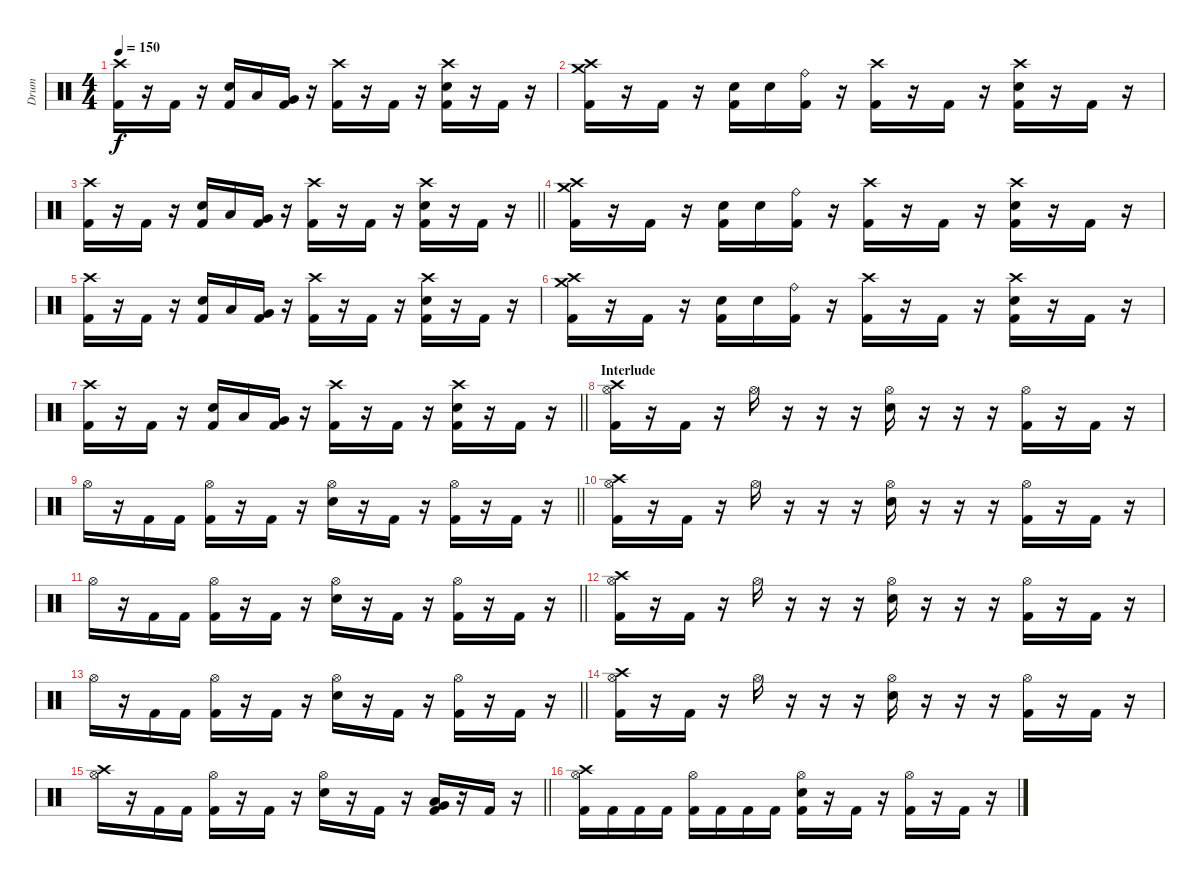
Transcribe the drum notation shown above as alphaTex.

\track ("Drum" "Drum") {instrument percussion}
\staff {score}
\articulation defaults
\ts (4 4)
\tempo 150
\clef neutral
\ks c
("Crash high (hit)" "Kick (hit) 2").16{dy f} r.16 "Kick (hit) 2".16 r.16 ("Electric Snare (hit)" "Kick (hit) 2").16 "Low Floor Tom (hit)".16 ("Very Low Tom (hit)" "Kick (hit) 2").16 r.16 ("Crash high (hit)" "Kick (hit) 2").16 r.16 "Kick (hit) 2".16 r.16 ("Crash high (hit)" "Electric Snare (hit)" "Kick (hit) 2").16 r.16 "Kick (hit) 2".16 r.16 |
("Crash high (hit)" "Crash medium (hit)" "Kick (hit) 2").16 r.16 "Kick (hit) 2".16 r.16 ("Electric Snare (hit)" "Kick (hit) 2").16 "Electric Snare (hit)".16 ("Ride (bell)" "Kick (hit) 2").16 r.16 ("Crash high (hit)" "Kick (hit) 2").16 r.16 "Kick (hit) 2".16 r.16 ("Crash high (hit)" "Electric Snare (hit)" "Kick (hit) 2").16 r.16 "Kick (hit) 2".16 r.16 |
\barLineRight lightlight
("Crash high (hit)" "Kick (hit) 2").16 r.16 "Kick (hit) 2".16 r.16 ("Electric Snare (hit)" "Kick (hit) 2").16 "Low Floor Tom (hit)".16 ("Very Low Tom (hit)" "Kick (hit) 2").16 r.16 ("Crash high (hit)" "Kick (hit) 2").16 r.16 "Kick (hit) 2".16 r.16 ("Crash high (hit)" "Electric Snare (hit)" "Kick (hit) 2").16 r.16 "Kick (hit) 2".16 r.16 |
("Crash high (hit)" "Crash medium (hit)" "Kick (hit) 2").16 r.16 "Kick (hit) 2".16 r.16 ("Electric Snare (hit)" "Kick (hit) 2").16 "Electric Snare (hit)".16 ("Ride (bell)" "Kick (hit) 2").16 r.16 ("Crash high (hit)" "Kick (hit) 2").16 r.16 "Kick (hit) 2".16 r.16 ("Crash high (hit)" "Electric Snare (hit)" "Kick (hit) 2").16 r.16 "Kick (hit) 2".16 r.16 |
("Crash high (hit)" "Kick (hit) 2").16 r.16 "Kick (hit) 2".16 r.16 ("Electric Snare (hit)" "Kick (hit) 2").16 "Low Floor Tom (hit)".16 ("Very Low Tom (hit)" "Kick (hit) 2").16 r.16 ("Crash high (hit)" "Kick (hit) 2").16 r.16 "Kick (hit) 2".16 r.16 ("Crash high (hit)" "Electric Snare (hit)" "Kick (hit) 2").16 r.16 "Kick (hit) 2".16 r.16 |
("Crash high (hit)" "Crash medium (hit)" "Kick (hit) 2").16 r.16 "Kick (hit) 2".16 r.16 ("Electric Snare (hit)" "Kick (hit) 2").16 "Electric Snare (hit)".16 ("Ride (bell)" "Kick (hit) 2").16 r.16 ("Crash high (hit)" "Kick (hit) 2").16 r.16 "Kick (hit) 2".16 r.16 ("Crash high (hit)" "Electric Snare (hit)" "Kick (hit) 2").16 r.16 "Kick (hit) 2".16 r.16 |
\barLineRight lightlight
("Crash high (hit)" "Kick (hit) 2").16 r.16 "Kick (hit) 2".16 r.16 ("Electric Snare (hit)" "Kick (hit) 2").16 "Low Floor Tom (hit)".16 ("Very Low Tom (hit)" "Kick (hit) 2").16 r.16 ("Crash high (hit)" "Kick (hit) 2").16 r.16 "Kick (hit) 2".16 r.16 ("Crash high (hit)" "Electric Snare (hit)" "Kick (hit) 2").16 r.16 "Kick (hit) 2".16 r.16 |
\section ("" "Interlude")
("Hi-Hat (open)" "Crash high (hit)" "Kick (hit) 2").16 r.16 "Kick (hit) 2".16 r.16 "Hi-Hat (open)".16 r.16 r.16 r.16 ("Hi-Hat (open)" "Electric Snare (hit)").16 r.16 r.16 r.16 ("Hi-Hat (open)" "Kick (hit) 2").16 r.16 "Kick (hit) 2".16 r.16 |
\barLineRight lightlight "Hi-Hat (open)".16
r.16 "Kick (hit) 2".16 "Kick (hit) 2".16 ("Hi-Hat (open)" "Kick (hit) 2").16 r.16 "Kick (hit) 2".16 r.16 ("Hi-Hat (open)" "Electric Snare (hit)").16 r.16 "Kick (hit) 2".16 r.16 ("Hi-Hat (open)" "Kick (hit) 2").16 r.16 "Kick (hit) 2".16 r.16 |
("Hi-Hat (open)" "Crash high (hit)" "Kick (hit) 2").16 r.16 "Kick (hit) 2".16 r.16 "Hi-Hat (open)".16 r.16 r.16 r.16 ("Hi-Hat (open)" "Electric Snare (hit)").16 r.16 r.16 r.16 ("Hi-Hat (open)" "Kick (hit) 2").16 r.16 "Kick (hit) 2".16 r.16 |
\barLineRight lightlight "Hi-Hat (open)".16
r.16 "Kick (hit) 2".16 "Kick (hit) 2".16 ("Hi-Hat (open)" "Kick (hit) 2").16 r.16 "Kick (hit) 2".16 r.16 ("Hi-Hat (open)" "Electric Snare (hit)").16 r.16 "Kick (hit) 2".16 r.16 ("Hi-Hat (open)" "Kick (hit) 2").16 r.16 "Kick (hit) 2".16 r.16 |
("Hi-Hat (open)" "Crash high (hit)" "Kick (hit) 2").16 r.16 "Kick (hit) 2".16 r.16 "Hi-Hat (open)".16 r.16 r.16 r.16 ("Hi-Hat (open)" "Electric Snare (hit)").16 r.16 r.16 r.16 ("Hi-Hat (open)" "Kick (hit) 2").16 r.16 "Kick (hit) 2".16 r.16 |
\barLineRight lightlight "Hi-Hat (open)".16
r.16 "Kick (hit) 2".16 "Kick (hit) 2".16 ("Hi-Hat (open)" "Kick (hit) 2").16 r.16 "Kick (hit) 2".16 r.16 ("Hi-Hat (open)" "Electric Snare (hit)").16 r.16 "Kick (hit) 2".16 r.16 ("Hi-Hat (open)" "Kick (hit) 2").16 r.16 "Kick (hit) 2".16 r.16 |
("Hi-Hat (open)" "Crash high (hit)" "Kick (hit) 2").16 r.16 "Kick (hit) 2".16 r.16 "Hi-Hat (open)".16 r.16 r.16 r.16 ("Hi-Hat (open)" "Electric Snare (hit)").16 r.16 r.16 r.16 ("Hi-Hat (open)" "Kick (hit) 2").16 r.16 "Kick (hit) 2".16 r.16 |
\barLineRight lightlight
("Hi-Hat (open)" "Crash high (hit)").16 r.16 "Kick (hit) 2".16 "Kick (hit) 2".16 ("Hi-Hat (open)" "Kick (hit) 2").16 r.16 "Kick (hit) 2".16 r.16 ("Hi-Hat (open)" "Electric Snare (hit)").16 r.16 "Kick (hit) 2".16 r.16 ("Low Floor Tom (hit)" "Very Low Tom (hit)" "Kick (hit) 2").16 r.16 "Kick (hit) 2".16 r.16 |
("Hi-Hat (open)" "Crash high (hit)" "Kick (hit) 2").16 "Kick (hit) 2".16 "Kick (hit) 2".16 "Kick (hit) 2".16 ("Hi-Hat (open)" "Kick (hit) 2").16 "Kick (hit) 2".16 "Kick (hit) 2".16 "Kick (hit) 2".16 ("Hi-Hat (open)" "Electric Snare (hit)" "Kick (hit) 2").16 r.16 "Kick (hit) 2".16 r.16 ("Hi-Hat (open)" "Kick (hit) 2").16 r.16 "Kick (hit) 2".16 r.16
